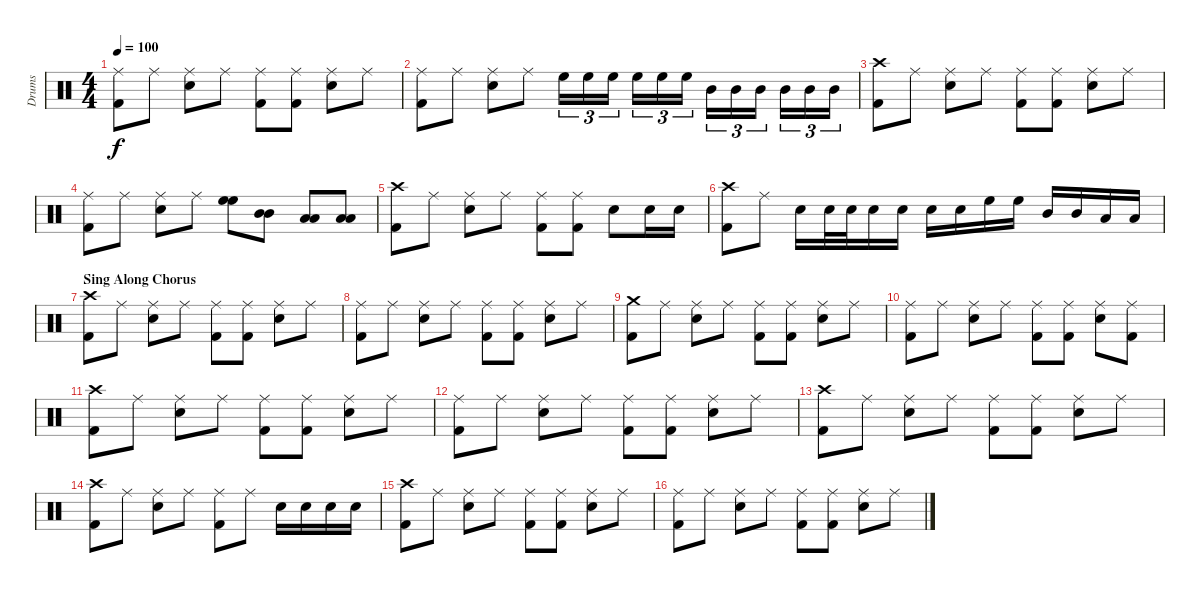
\track ("Drums" "Drums") {instrument percussion}
\staff {score}
\articulation defaults
\ts (4 4)
\tempo 100
\clef neutral
\ks c
("Ride (middle)" "Kick (hit) 2").8{dy f} "Ride (middle)".8 ("Ride (middle)" "Snare (hit) 2").8 "Ride (middle)".8 ("Ride (middle)" "Kick (hit) 2").8 ("Ride (middle)" "Kick (hit) 2").8 ("Ride (middle)" "Snare (hit) 2").8 "Ride (middle)".8 |
("Ride (middle)" "Kick (hit) 2").8 "Ride (middle)".8 ("Ride (middle)" "Snare (hit) 2").8 "Ride (middle)".8 "High Floor Tom (hit)".16{tu (3 2)} "High Floor Tom (hit)".16{tu (3 2)} "High Floor Tom (hit)".16{tu (3 2)} "High Floor Tom (hit)".16{tu (3 2)} "High Floor Tom (hit)".16{tu (3 2)} "High Floor Tom (hit)".16{tu (3 2)} "Mid Tom (hit)".16{tu (3 2)} "Mid Tom (hit)".16{tu (3 2)} "Mid Tom (hit)".16{tu (3 2)} "Mid Tom (hit)".16{tu (3 2)} "Mid Tom (hit)".16{tu (3 2)} "Mid Tom (hit)".16{tu (3 2)} |
("Crash high (hit)" "Kick (hit) 2").8 "Ride (middle)".8 ("Ride (middle)" "Snare (hit) 2").8 "Ride (middle)".8 ("Ride (middle)" "Kick (hit) 2").8 ("Ride (middle)" "Kick (hit) 2").8 ("Ride (middle)" "Snare (hit) 2").8 "Ride (middle)".8 |
("Ride (middle)" "Kick (hit) 2").8 "Ride (middle)".8 ("Ride (middle)" "Snare (hit) 2").8 "Ride (middle)".8 ("High Floor Tom (hit)" "High Floor Tom (hit)").8 ("Mid Tom (hit)" "Mid Tom (hit)").8 ("Low Tom (hit)" "Low Tom (hit)").8 ("Low Floor Tom (hit)" "Low Floor Tom (hit)").8 |
("Crash high (hit)" "Kick (hit) 2").8 "Ride (middle)".8 ("Ride (middle)" "Snare (hit) 2").8 "Ride (middle)".8 ("Ride (middle)" "Kick (hit) 2").8 ("Ride (middle)" "Kick (hit) 2").8 "Snare (hit) 2".8 "Snare (hit) 2".16 "Snare (hit) 2".16 |
("Crash high (hit)" "Kick (hit) 2").8 "Ride (middle)".8 "Snare (hit) 2".16 "Snare (hit) 2".32 "Snare (hit) 2".32 "Snare (hit) 2".16 "Snare (hit) 2".16 "Snare (hit) 2".16 "Snare (hit) 2".16 "High Floor Tom (hit)".16 "High Floor Tom (hit)".16 "Mid Tom (hit)".16 "Mid Tom (hit)".16 "Low Tom (hit)".16 "Low Tom (hit)".16 |
\section ("" "Sing Along Chorus")
("Crash high (hit)" "Kick (hit) 2").8 "Ride (middle)".8 ("Ride (middle)" "Snare (hit) 2").8 "Ride (middle)".8 ("Ride (middle)" "Kick (hit) 2").8 ("Ride (middle)" "Kick (hit) 2").8 ("Ride (middle)" "Snare (hit) 2").8 "Ride (middle)".8 |
("Ride (middle)" "Kick (hit) 2").8 "Ride (middle)".8 ("Ride (middle)" "Snare (hit) 2").8 "Ride (middle)".8 ("Ride (middle)" "Kick (hit) 2").8 ("Ride (middle)" "Kick (hit) 2").8 ("Ride (middle)" "Snare (hit) 2").8 "Ride (middle)".8 |
("Crash medium (hit)" "Kick (hit) 2").8 "Ride (middle)".8 ("Ride (middle)" "Snare (hit) 2").8 "Ride (middle)".8 ("Ride (middle)" "Kick (hit) 2").8 ("Ride (middle)" "Kick (hit) 2").8 ("Ride (middle)" "Snare (hit) 2").8 "Ride (middle)".8 |
("Ride (middle)" "Kick (hit) 2").8 "Ride (middle)".8 ("Ride (middle)" "Snare (hit) 2").8 "Ride (middle)".8 ("Ride (middle)" "Kick (hit) 2").8 ("Ride (middle)" "Kick (hit) 2").8 ("Ride (middle)" "Snare (hit) 2").8 ("Ride (middle)" "Kick (hit) 2").8 |
("Crash high (hit)" "Kick (hit) 2").8 "Ride (middle)".8 ("Ride (middle)" "Snare (hit) 2").8 "Ride (middle)".8 ("Ride (middle)" "Kick (hit) 2").8 ("Ride (middle)" "Kick (hit) 2").8 ("Ride (middle)" "Snare (hit) 2").8 "Ride (middle)".8 |
("Ride (middle)" "Kick (hit) 2").8 "Ride (middle)".8 ("Ride (middle)" "Snare (hit) 2").8 "Ride (middle)".8 ("Ride (middle)" "Kick (hit) 2").8 ("Ride (middle)" "Kick (hit) 2").8 ("Ride (middle)" "Snare (hit) 2").8 "Ride (middle)".8 |
("Crash high (hit)" "Kick (hit) 2").8 "Ride (middle)".8 ("Ride (middle)" "Snare (hit) 2").8 "Ride (middle)".8 ("Ride (middle)" "Kick (hit) 2").8 ("Ride (middle)" "Kick (hit) 2").8 ("Ride (middle)" "Snare (hit) 2").8 "Ride (middle)".8 |
("Crash high (hit)" "Kick (hit) 2").8 "Ride (middle)".8 ("Ride (middle)" "Snare (hit) 2").8 "Ride (middle)".8 ("Ride (middle)" "Kick (hit) 2").8 "Ride (middle)".8 "Snare (hit) 2".16 "Snare (hit) 2".16 "Snare (hit) 2".16 "Snare (hit) 2".16 |
("Crash high (hit)" "Kick (hit) 2").8 "Ride (middle)".8 ("Ride (middle)" "Snare (hit) 2").8 "Ride (middle)".8 ("Ride (middle)" "Kick (hit) 2").8 ("Ride (middle)" "Kick (hit) 2").8 ("Ride (middle)" "Snare (hit) 2").8 "Ride (middle)".8 |
("Ride (middle)" "Kick (hit) 2").8 "Ride (middle)".8 ("Ride (middle)" "Snare (hit) 2").8 "Ride (middle)".8 ("Ride (middle)" "Kick (hit) 2").8 ("Ride (middle)" "Kick (hit) 2").8 ("Ride (middle)" "Snare (hit) 2").8 "Ride (middle)".8
